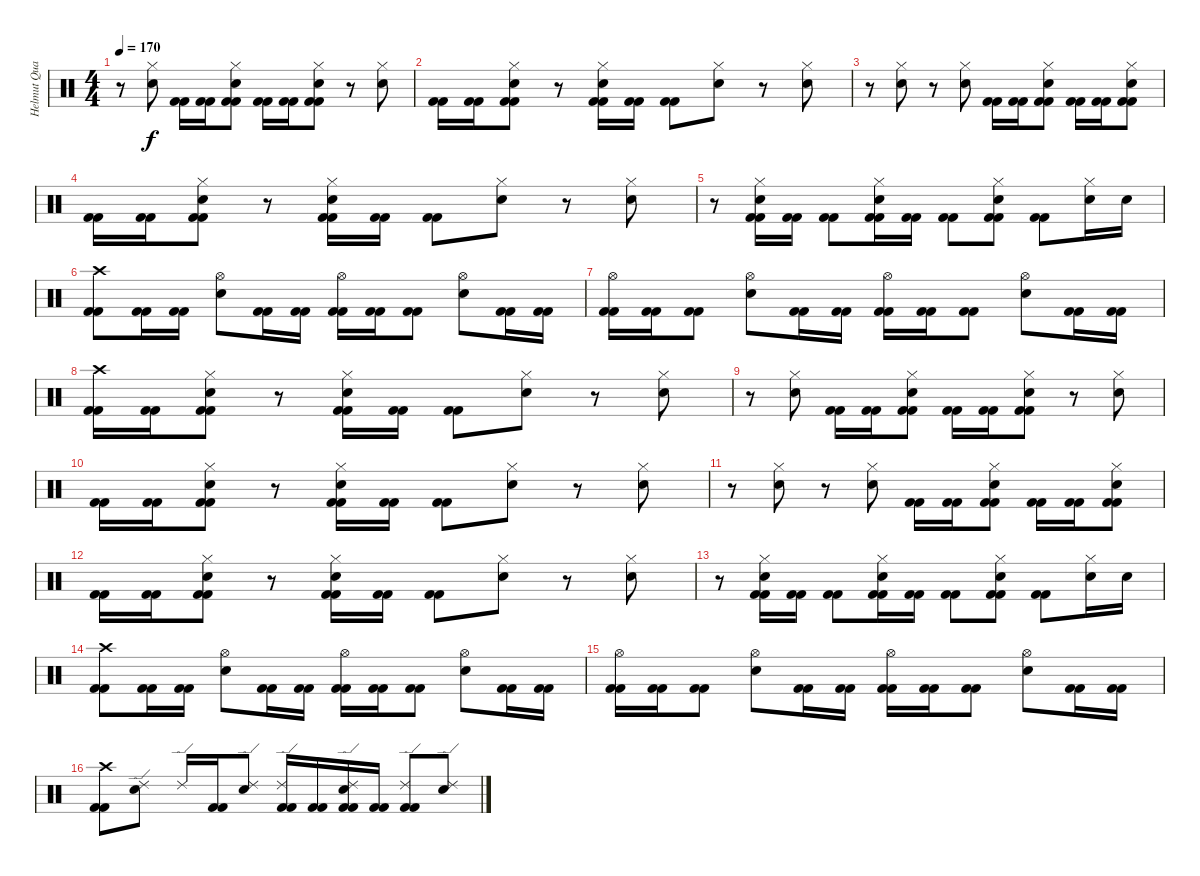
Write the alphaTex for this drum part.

\track ("Helmut Quacken" "Helmut Qua") {instrument percussion}
\staff {score}
\articulation defaults
\ts (4 4)
\tempo 170
\clef neutral
\ks c
r.8{dy f} ("Hi-Hat (closed)" "Electric Snare (hit)").8 ("Kick (hit) 2" "Kick (hit) 2").16 ("Kick (hit) 2" "Kick (hit) 2").16 ("Hi-Hat (closed)" "Electric Snare (hit)" "Kick (hit) 2" "Kick (hit) 2").8 ("Kick (hit) 2" "Kick (hit) 2").16 ("Kick (hit) 2" "Kick (hit) 2").16 ("Hi-Hat (closed)" "Electric Snare (hit)" "Kick (hit) 2" "Kick (hit) 2").8 r.8 ("Hi-Hat (closed)" "Electric Snare (hit)").8 |
("Kick (hit) 2" "Kick (hit) 2").16 ("Kick (hit) 2" "Kick (hit) 2").16 ("Hi-Hat (closed)" "Electric Snare (hit)" "Kick (hit) 2" "Kick (hit) 2").8 r.8 ("Hi-Hat (closed)" "Electric Snare (hit)" "Kick (hit) 2" "Kick (hit) 2").16 ("Kick (hit) 2" "Kick (hit) 2").16 ("Kick (hit) 2" "Kick (hit) 2").8 ("Hi-Hat (closed)" "Electric Snare (hit)").8 r.8 ("Hi-Hat (closed)" "Electric Snare (hit)").8 |
r.8 ("Hi-Hat (closed)" "Electric Snare (hit)").8 r.8 ("Hi-Hat (closed)" "Electric Snare (hit)").8 ("Kick (hit) 2" "Kick (hit) 2").16 ("Kick (hit) 2" "Kick (hit) 2").16 ("Hi-Hat (closed)" "Electric Snare (hit)" "Kick (hit) 2" "Kick (hit) 2").8 ("Kick (hit) 2" "Kick (hit) 2").16 ("Kick (hit) 2" "Kick (hit) 2").16 ("Hi-Hat (closed)" "Electric Snare (hit)" "Kick (hit) 2" "Kick (hit) 2").8 |
("Kick (hit) 2" "Kick (hit) 2").16 ("Kick (hit) 2" "Kick (hit) 2").16 ("Hi-Hat (closed)" "Electric Snare (hit)" "Kick (hit) 2" "Kick (hit) 2").8 r.8 ("Hi-Hat (closed)" "Electric Snare (hit)" "Kick (hit) 2" "Kick (hit) 2").16 ("Kick (hit) 2" "Kick (hit) 2").16 ("Kick (hit) 2" "Kick (hit) 2").8 ("Hi-Hat (closed)" "Electric Snare (hit)").8 r.8 ("Hi-Hat (closed)" "Electric Snare (hit)").8 |
r.8 ("Hi-Hat (closed)" "Electric Snare (hit)" "Kick (hit) 2" "Kick (hit) 2").16 ("Kick (hit) 2" "Kick (hit) 2").16 ("Kick (hit) 2" "Kick (hit) 2").8 ("Hi-Hat (closed)" "Electric Snare (hit)" "Kick (hit) 2" "Kick (hit) 2").16 ("Kick (hit) 2" "Kick (hit) 2").16 ("Kick (hit) 2" "Kick (hit) 2").8 ("Hi-Hat (closed)" "Electric Snare (hit)" "Kick (hit) 2" "Kick (hit) 2").8 ("Kick (hit) 2" "Kick (hit) 2").8 ("Hi-Hat (closed)" "Electric Snare (hit)").16 "Electric Snare (hit)".16 |
("Crash high (hit)" "Kick (hit) 2" "Kick (hit) 2").8 ("Kick (hit) 2" "Kick (hit) 2").16 ("Kick (hit) 2" "Kick (hit) 2").16 ("Hi-Hat (open)" "Electric Snare (hit)").8 ("Kick (hit) 2" "Kick (hit) 2").16 ("Kick (hit) 2" "Kick (hit) 2").16 ("Hi-Hat (open)" "Kick (hit) 2" "Kick (hit) 2").16 ("Kick (hit) 2" "Kick (hit) 2").16 ("Kick (hit) 2" "Kick (hit) 2").8 ("Hi-Hat (open)" "Electric Snare (hit)").8 ("Kick (hit) 2" "Kick (hit) 2").16 ("Kick (hit) 2" "Kick (hit) 2").16 |
("Hi-Hat (open)" "Kick (hit) 2" "Kick (hit) 2").16 ("Kick (hit) 2" "Kick (hit) 2").16 ("Kick (hit) 2" "Kick (hit) 2").8 ("Hi-Hat (open)" "Electric Snare (hit)").8 ("Kick (hit) 2" "Kick (hit) 2").16 ("Kick (hit) 2" "Kick (hit) 2").16 ("Hi-Hat (open)" "Kick (hit) 2" "Kick (hit) 2").16 ("Kick (hit) 2" "Kick (hit) 2").16 ("Kick (hit) 2" "Kick (hit) 2").8 ("Hi-Hat (open)" "Electric Snare (hit)").8 ("Kick (hit) 2" "Kick (hit) 2").16 ("Kick (hit) 2" "Kick (hit) 2").16 |
("Crash high (hit)" "Kick (hit) 2" "Kick (hit) 2").16 ("Kick (hit) 2" "Kick (hit) 2").16 ("Hi-Hat (closed)" "Electric Snare (hit)" "Kick (hit) 2" "Kick (hit) 2").8 r.8 ("Hi-Hat (closed)" "Electric Snare (hit)" "Kick (hit) 2" "Kick (hit) 2").16 ("Kick (hit) 2" "Kick (hit) 2").16 ("Kick (hit) 2" "Kick (hit) 2").8 ("Hi-Hat (closed)" "Electric Snare (hit)").8 r.8 ("Hi-Hat (closed)" "Electric Snare (hit)").8 |
r.8 ("Hi-Hat (closed)" "Electric Snare (hit)").8 ("Kick (hit) 2" "Kick (hit) 2").16 ("Kick (hit) 2" "Kick (hit) 2").16 ("Hi-Hat (closed)" "Electric Snare (hit)" "Kick (hit) 2" "Kick (hit) 2").8 ("Kick (hit) 2" "Kick (hit) 2").16 ("Kick (hit) 2" "Kick (hit) 2").16 ("Hi-Hat (closed)" "Electric Snare (hit)" "Kick (hit) 2" "Kick (hit) 2").8 r.8 ("Hi-Hat (closed)" "Electric Snare (hit)").8 |
("Kick (hit) 2" "Kick (hit) 2").16 ("Kick (hit) 2" "Kick (hit) 2").16 ("Hi-Hat (closed)" "Electric Snare (hit)" "Kick (hit) 2" "Kick (hit) 2").8 r.8 ("Hi-Hat (closed)" "Electric Snare (hit)" "Kick (hit) 2" "Kick (hit) 2").16 ("Kick (hit) 2" "Kick (hit) 2").16 ("Kick (hit) 2" "Kick (hit) 2").8 ("Hi-Hat (closed)" "Electric Snare (hit)").8 r.8 ("Hi-Hat (closed)" "Electric Snare (hit)").8 |
r.8 ("Hi-Hat (closed)" "Electric Snare (hit)").8 r.8 ("Hi-Hat (closed)" "Electric Snare (hit)").8 ("Kick (hit) 2" "Kick (hit) 2").16 ("Kick (hit) 2" "Kick (hit) 2").16 ("Hi-Hat (closed)" "Electric Snare (hit)" "Kick (hit) 2" "Kick (hit) 2").8 ("Kick (hit) 2" "Kick (hit) 2").16 ("Kick (hit) 2" "Kick (hit) 2").16 ("Hi-Hat (closed)" "Electric Snare (hit)" "Kick (hit) 2" "Kick (hit) 2").8 |
("Kick (hit) 2" "Kick (hit) 2").16 ("Kick (hit) 2" "Kick (hit) 2").16 ("Hi-Hat (closed)" "Electric Snare (hit)" "Kick (hit) 2" "Kick (hit) 2").8 r.8 ("Hi-Hat (closed)" "Electric Snare (hit)" "Kick (hit) 2" "Kick (hit) 2").16 ("Kick (hit) 2" "Kick (hit) 2").16 ("Kick (hit) 2" "Kick (hit) 2").8 ("Hi-Hat (closed)" "Electric Snare (hit)").8 r.8 ("Hi-Hat (closed)" "Electric Snare (hit)").8 |
r.8 ("Hi-Hat (closed)" "Electric Snare (hit)" "Kick (hit) 2" "Kick (hit) 2").16 ("Kick (hit) 2" "Kick (hit) 2").16 ("Kick (hit) 2" "Kick (hit) 2").8 ("Hi-Hat (closed)" "Electric Snare (hit)" "Kick (hit) 2" "Kick (hit) 2").16 ("Kick (hit) 2" "Kick (hit) 2").16 ("Kick (hit) 2" "Kick (hit) 2").8 ("Hi-Hat (closed)" "Electric Snare (hit)" "Kick (hit) 2" "Kick (hit) 2").8 ("Kick (hit) 2" "Kick (hit) 2").8 ("Hi-Hat (closed)" "Electric Snare (hit)").16 "Electric Snare (hit)".16 |
("Crash high (hit)" "Kick (hit) 2" "Kick (hit) 2").8 ("Kick (hit) 2" "Kick (hit) 2").16 ("Kick (hit) 2" "Kick (hit) 2").16 ("Hi-Hat (open)" "Electric Snare (hit)").8 ("Kick (hit) 2" "Kick (hit) 2").16 ("Kick (hit) 2" "Kick (hit) 2").16 ("Hi-Hat (open)" "Kick (hit) 2" "Kick (hit) 2").16 ("Kick (hit) 2" "Kick (hit) 2").16 ("Kick (hit) 2" "Kick (hit) 2").8 ("Hi-Hat (open)" "Electric Snare (hit)").8 ("Kick (hit) 2" "Kick (hit) 2").16 ("Kick (hit) 2" "Kick (hit) 2").16 |
("Hi-Hat (open)" "Kick (hit) 2" "Kick (hit) 2").16 ("Kick (hit) 2" "Kick (hit) 2").16 ("Kick (hit) 2" "Kick (hit) 2").8 ("Hi-Hat (open)" "Electric Snare (hit)").8 ("Kick (hit) 2" "Kick (hit) 2").16 ("Kick (hit) 2" "Kick (hit) 2").16 ("Hi-Hat (open)" "Kick (hit) 2" "Kick (hit) 2").16 ("Kick (hit) 2" "Kick (hit) 2").16 ("Kick (hit) 2" "Kick (hit) 2").8 ("Hi-Hat (open)" "Electric Snare (hit)").8 ("Kick (hit) 2" "Kick (hit) 2").16 ("Kick (hit) 2" "Kick (hit) 2").16 |
("Crash high (hit)" "Kick (hit) 2" "Kick (hit) 2").8 ("Ride (edge) 2" "Electric Snare (hit)").8 "Ride (edge) 2".16 ("Kick (hit) 2" "Kick (hit) 2").16 ("Ride (edge) 2" "Electric Snare (hit)").8 ("Ride (edge) 2" "Kick (hit) 2" "Kick (hit) 2").16 ("Kick (hit) 2" "Kick (hit) 2").16 ("Ride (edge) 2" "Electric Snare (hit)" "Kick (hit) 2" "Kick (hit) 2").16 ("Kick (hit) 2" "Kick (hit) 2").16 ("Ride (edge) 2" "Kick (hit) 2" "Kick (hit) 2").8 ("Ride (edge) 2" "Electric Snare (hit)").8
